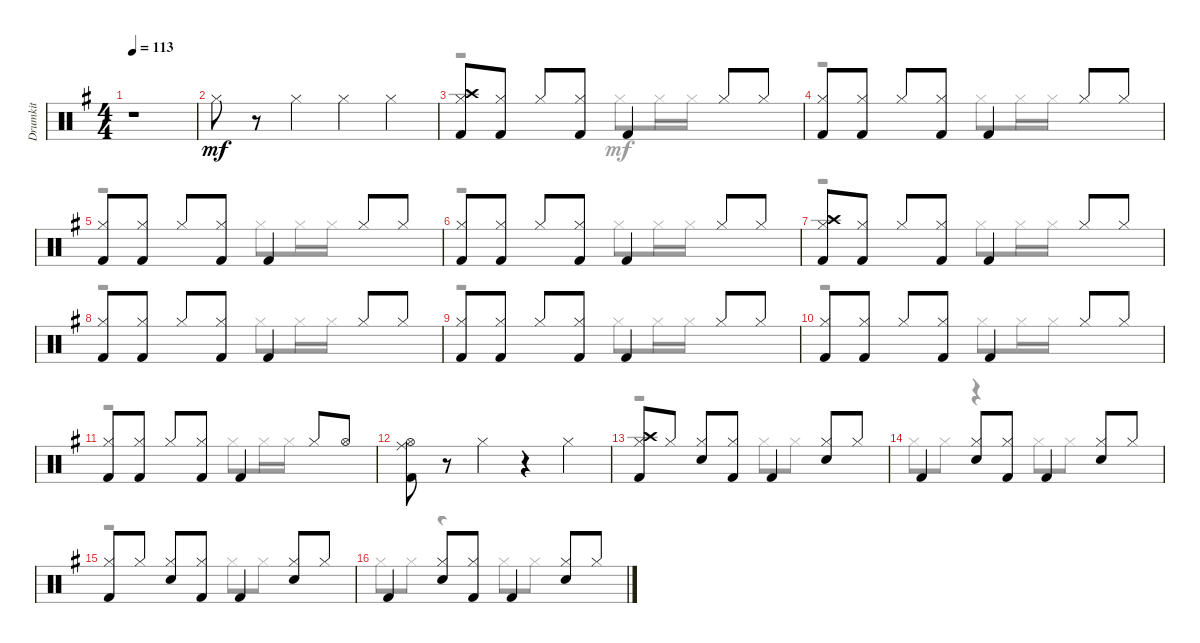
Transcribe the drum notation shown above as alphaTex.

\track ("Drumkit" "Drumkit") {instrument percussion}
\staff {score}
\articulation defaults
\voice
\ts (4 4)
\tempo 113
\clef neutral
\ks eminor
r.1{dy mf} |
"Hi-Hat (closed)".8 r.8 "Hi-Hat (closed)".4 "Hi-Hat (closed)".4 "Hi-Hat (closed)".4 |
("Hi-Hat (closed)" "Kick (hit) 2" "Crash high (hit)").8 ("Kick (hit) 2" "Hi-Hat (closed)").8 "Hi-Hat (closed)".8 ("Kick (hit) 2" "Hi-Hat (closed)").8 "Kick (hit) 2".4 "Hi-Hat (closed)".8 "Hi-Hat (closed)".8 |
("Kick (hit) 2" "Hi-Hat (closed)").8 ("Kick (hit) 2" "Hi-Hat (closed)").8 "Hi-Hat (closed)".8 ("Kick (hit) 2" "Hi-Hat (closed)").8 "Kick (hit) 2".4 "Hi-Hat (closed)".8 "Hi-Hat (closed)".8 |
("Kick (hit) 2" "Hi-Hat (closed)").8 ("Kick (hit) 2" "Hi-Hat (closed)").8 "Hi-Hat (closed)".8 ("Hi-Hat (closed)" "Kick (hit) 2").8 "Kick (hit) 2".4 "Hi-Hat (closed)".8 "Hi-Hat (closed)".8 |
("Kick (hit) 2" "Hi-Hat (closed)").8 ("Hi-Hat (closed)" "Kick (hit) 2").8 "Hi-Hat (closed)".8 ("Kick (hit) 2" "Hi-Hat (closed)").8 "Kick (hit) 2".4 "Hi-Hat (closed)".8 "Hi-Hat (closed)".8 |
("Crash high (hit)" "Hi-Hat (closed)" "Kick (hit) 2").8 ("Hi-Hat (closed)" "Kick (hit) 2").8 "Hi-Hat (closed)".8 ("Kick (hit) 2" "Hi-Hat (closed)").8 "Kick (hit) 2".4 "Hi-Hat (closed)".8 "Hi-Hat (closed)".8 |
("Hi-Hat (closed)" "Kick (hit) 2").8 ("Hi-Hat (closed)" "Kick (hit) 2").8 "Hi-Hat (closed)".8 ("Hi-Hat (closed)" "Kick (hit) 2").8 "Kick (hit) 2".4 "Hi-Hat (closed)".8 "Hi-Hat (closed)".8 |
("Kick (hit) 2" "Hi-Hat (closed)").8 ("Kick (hit) 2" "Hi-Hat (closed)").8 "Hi-Hat (closed)".8 ("Kick (hit) 2" "Hi-Hat (closed)").8 "Kick (hit) 2".4 "Hi-Hat (closed)".8 "Hi-Hat (closed)".8 |
("Hi-Hat (closed)" "Kick (hit) 2").8 ("Hi-Hat (closed)" "Kick (hit) 2").8 "Hi-Hat (closed)".8 ("Hi-Hat (closed)" "Kick (hit) 2").8 "Kick (hit) 2".4 "Hi-Hat (closed)".8 "Hi-Hat (closed)".8 |
("Kick (hit) 2" "Hi-Hat (closed)").8 ("Kick (hit) 2" "Hi-Hat (closed)").8 "Hi-Hat (closed)".8 ("Kick (hit) 2" "Hi-Hat (closed)").8 "Kick (hit) 2".4 "Hi-Hat (closed)".8 "Hi-Hat (open)".8 |
("Ride (middle)" "Hi-Hat (open)" "Kick (hit) 2").8 r.8 "Hi-Hat (closed)".4 r.4 "Hi-Hat (closed)".4 |
("Crash high (hit)" "Kick (hit) 2" "Hi-Hat (closed)").8 "Hi-Hat (closed)".8 ("Snare (hit) 2" "Hi-Hat (closed)").8 ("Hi-Hat (closed)" "Kick (hit) 2").8 "Kick (hit) 2".4 ("Snare (hit) 2" "Hi-Hat (closed)").8 "Hi-Hat (closed)".8 |
"Kick (hit) 2".4 ("Snare (hit) 2" "Hi-Hat (closed)").8 ("Hi-Hat (closed)" "Kick (hit) 2").8 "Kick (hit) 2".4 ("Snare (hit) 2" "Hi-Hat (closed)").8 "Hi-Hat (closed)".8 |
("Kick (hit) 2" "Hi-Hat (closed)").8 "Hi-Hat (closed)".8 ("Snare (hit) 2" "Hi-Hat (closed)").8 ("Kick (hit) 2" "Hi-Hat (closed)").8 "Kick (hit) 2".4 ("Hi-Hat (closed)" "Snare (hit) 2").8 "Hi-Hat (closed)".8 |
"Kick (hit) 2".4 ("Hi-Hat (closed)" "Snare (hit) 2").8 ("Hi-Hat (closed)" "Kick (hit) 2").8 "Kick (hit) 2".4 ("Snare (hit) 2" "Hi-Hat (closed)").8 "Hi-Hat (closed)".8
\voice
\clef neutral
\ottava regular
\simile none
\ks eminor
|
|
r.2 "Hi-Hat (closed)".8 "Hi-Hat (closed)".16 "Hi-Hat (closed)".16 |
r.2 "Hi-Hat (closed)".8 "Hi-Hat (closed)".16 "Hi-Hat (closed)".16 |
r.2 "Hi-Hat (closed)".8 "Hi-Hat (closed)".16 "Hi-Hat (closed)".16 |
r.2 "Hi-Hat (closed)".8 "Hi-Hat (closed)".16 "Hi-Hat (closed)".16 |
r.2 "Hi-Hat (closed)".8 "Hi-Hat (closed)".16 "Hi-Hat (closed)".16 |
r.2 "Hi-Hat (closed)".8 "Hi-Hat (closed)".16 "Hi-Hat (closed)".16 |
r.2 "Hi-Hat (closed)".8 "Hi-Hat (closed)".16 "Hi-Hat (closed)".16 |
r.2 "Hi-Hat (closed)".8 "Hi-Hat (closed)".16 "Hi-Hat (closed)".16 |
r.2 "Hi-Hat (closed)".8 "Hi-Hat (closed)".16 "Hi-Hat (closed)".16 |
|
r.2 "Hi-Hat (closed)".8 "Hi-Hat (closed)".8 |
"Hi-Hat (closed)".8 "Hi-Hat (closed)".8 r.4 "Hi-Hat (closed)".8 "Hi-Hat (closed)".8 |
r.2 "Hi-Hat (closed)".8 "Hi-Hat (closed)".8 |
"Hi-Hat (closed)".8 "Hi-Hat (closed)".8 r.4 "Hi-Hat (closed)".8 "Hi-Hat (closed)".8
